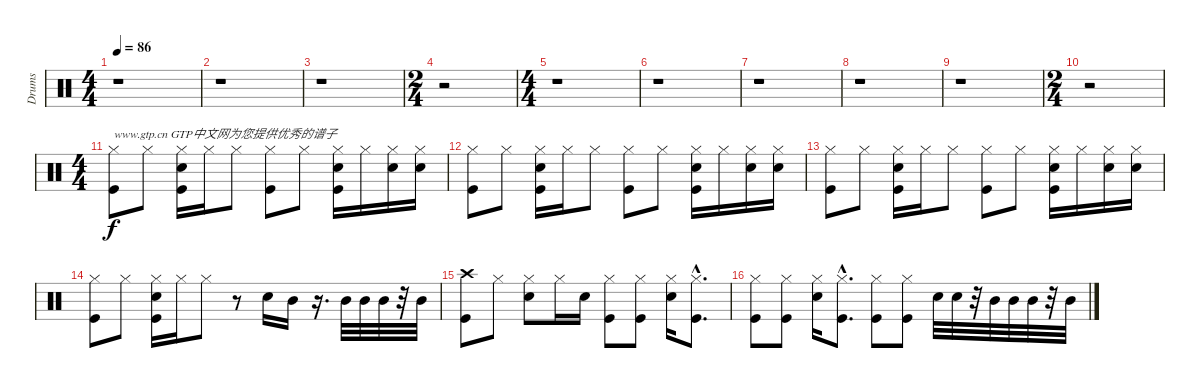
\track ("Drums" "Drums") {instrument percussion}
\staff {score}
\articulation defaults
\ts (4 4)
\tempo 86
\clef neutral
\ks c
r.1{dy f} |
r.1 |
r.1 |
\ts (2 4)
r.2 |
\ts (4 4)
r.1 |
r.1 |
r.1 |
r.1 |
r.1 |
\ts (2 4)
r.2 |
\ts (4 4)
("Kick (hit)" "Hi-Hat (closed)").8{txt "www.gtp.cn GTP中文网为您提供优秀的谱子"} "Hi-Hat (closed)".8 ("Kick (hit)" "Hi-Hat (closed)" "Snare (hit) 2").16 "Hi-Hat (closed)".16 "Hi-Hat (closed)".8 ("Hi-Hat (closed)" "Kick (hit)").8 "Hi-Hat (closed)".8 ("Kick (hit)" "Hi-Hat (closed)" "Snare (hit) 2").16 "Hi-Hat (closed)".16 ("Hi-Hat (closed)" "Snare (hit) 2").16 ("Hi-Hat (closed)" "Snare (hit) 2").16 |
("Hi-Hat (closed)" "Kick (hit)").8 "Hi-Hat (closed)".8 ("Kick (hit)" "Hi-Hat (closed)" "Snare (hit) 2").16 "Hi-Hat (closed)".16 "Hi-Hat (closed)".8 ("Hi-Hat (closed)" "Kick (hit)").8 "Hi-Hat (closed)".8 ("Kick (hit)" "Hi-Hat (closed)" "Snare (hit) 2").16 "Hi-Hat (closed)".16 ("Hi-Hat (closed)" "Snare (hit) 2").16 ("Hi-Hat (closed)" "Snare (hit) 2").16 |
("Hi-Hat (closed)" "Kick (hit)").8 "Hi-Hat (closed)".8 ("Kick (hit)" "Hi-Hat (closed)" "Snare (hit) 2").16 "Hi-Hat (closed)".16 "Hi-Hat (closed)".8 ("Hi-Hat (closed)" "Kick (hit)").8 "Hi-Hat (closed)".8 ("Kick (hit)" "Hi-Hat (closed)" "Snare (hit) 2").16 "Hi-Hat (closed)".16 ("Hi-Hat (closed)" "Snare (hit) 2").16 ("Hi-Hat (closed)" "Snare (hit) 2").16 |
("Hi-Hat (closed)" "Kick (hit)").8 "Hi-Hat (closed)".8 ("Kick (hit)" "Hi-Hat (closed)" "Snare (hit) 2").16 "Hi-Hat (closed)".16 "Hi-Hat (closed)".8 r.8 "Snare (hit) 2".16 "Mid Tom (hit)".16 r.16{d} "Mid Tom (hit)".32 "Mid Tom (hit)".32 "Mid Tom (hit)".32 r.32 "Mid Tom (hit)".32 |
("Crash high (hit)" "Kick (hit)").8 "Hi-Hat (closed)".8 ("Snare (hit) 2" "Hi-Hat (closed)").8 "Hi-Hat (closed)".16 "Snare (hit) 2".16 ("Hi-Hat (closed)" "Kick (hit)").8 ("Hi-Hat (closed)" "Kick (hit)").8 ("Hi-Hat (closed)" "Snare (hit) 2").16 ("Hi-Hat (closed)"{hac} "Kick (hit)"{hac}).8{d} |
("Hi-Hat (closed)" "Kick (hit)").8 ("Hi-Hat (closed)" "Kick (hit)").8 ("Hi-Hat (closed)" "Snare (hit) 2").16 ("Hi-Hat (closed)"{hac} "Kick (hit)"{hac}).8{d} ("Hi-Hat (closed)" "Kick (hit)").8 ("Hi-Hat (closed)" "Kick (hit)").8 "Snare (hit) 2".32 "Snare (hit) 2".32 r.32 "Mid Tom (hit)".32 "Mid Tom (hit)".32 "Mid Tom (hit)".32 r.32 "Mid Tom (hit)".32
